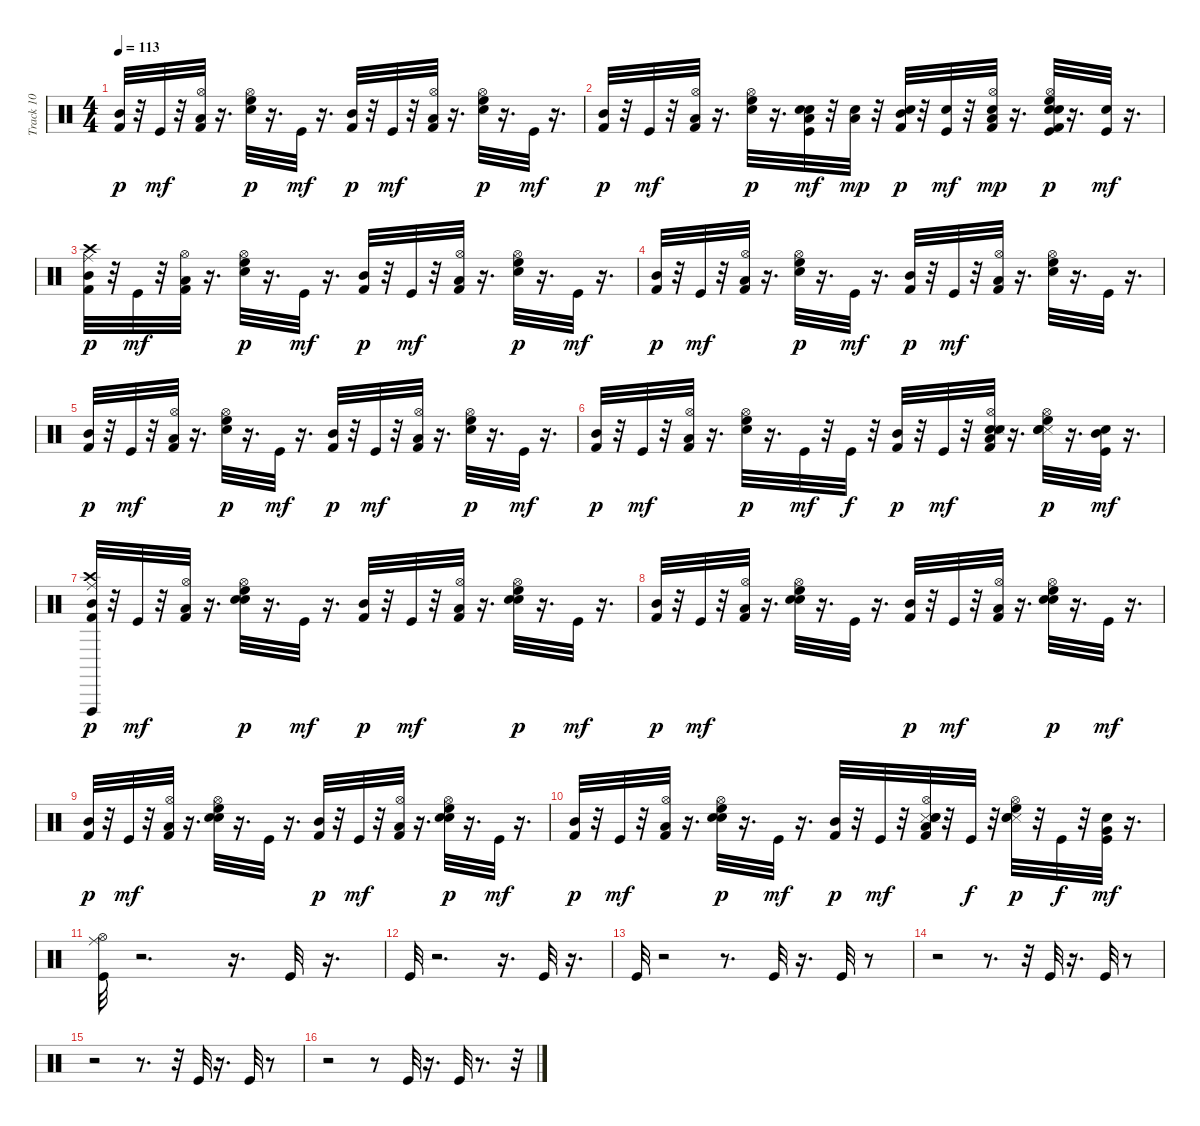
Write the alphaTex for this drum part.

\track ("Track 10" "Track 10") {instrument percussion}
\staff {score}
\articulation defaults
\ts (4 4)
\tempo 113
\clef neutral
\ks c
("Mid Tom (hit)" "Kick (hit) 2").32{dy p} r.32 "Kick (hit)".32{dy mf} r.32 ("Hi-Hat (open)" "Low Tom (hit)" "Kick (hit) 2").32 r.16{d} ("Hi-Hat (open)" "High Floor Tom (hit)" "Snare (hit) 2").32{dy p} r.16{d} "Kick (hit)".32{dy mf} r.16{d} ("Mid Tom (hit)" "Kick (hit) 2").32{dy p} r.32 "Kick (hit)".32{dy mf} r.32 ("Hi-Hat (open)" "Low Tom (hit)" "Kick (hit) 2").32 r.16{d} ("Hi-Hat (open)" "High Floor Tom (hit)" "Snare (hit) 2").32{dy p} r.16{d} "Kick (hit)".32{dy mf} r.16{d} |
("Mid Tom (hit)" "Kick (hit) 2").32{dy p} r.32 "Kick (hit)".32{dy mf} r.32 ("Hi-Hat (open)" "Low Tom (hit)" "Kick (hit) 2").32 r.16{d} ("Hi-Hat (open)" "High Floor Tom (hit)" "Snare (hit) 2").32{dy p} r.16{d} ("Electric Snare (hit)" "Low Tom (hit)" "Snare (hit) 2" "Kick (hit)").32{dy mf} r.32 ("Low Tom (hit)" "Snare (hit) 2").32{dy mp} r.32 ("Snare (hit) 2" "Mid Tom (hit)" "Kick (hit) 2").32{dy p} r.32 ("Snare (hit) 2" "Kick (hit)").32{dy mf} r.32 ("Hi-Hat (open)" "Low Tom (hit)" "Kick (hit) 2" "Snare (hit) 2").32{dy mp} r.16{d} ("Hi-Hat (open)" "Electric Snare (hit)" "Kick (hit)" "Kick (hit) 2" "High Floor Tom (hit)" "Snare (hit) 2").32{dy p} r.16{d} ("Snare (hit) 2" "Kick (hit)").32{dy mf} r.16{d} |
("Crash high (hit)" "Mid Tom (hit)" "Kick (hit) 2" "Ride (middle)").32{dy p} r.32 "Kick (hit)".32{dy mf} r.32 ("Hi-Hat (open)" "Low Tom (hit)" "Kick (hit) 2").32 r.16{d} ("Hi-Hat (open)" "High Floor Tom (hit)" "Snare (hit) 2").32{dy p} r.16{d} "Kick (hit)".32{dy mf} r.16{d} ("Mid Tom (hit)" "Kick (hit) 2").32{dy p} r.32 "Kick (hit)".32{dy mf} r.32 ("Hi-Hat (open)" "Low Tom (hit)" "Kick (hit) 2").32 r.16{d} ("Hi-Hat (open)" "High Floor Tom (hit)" "Snare (hit) 2").32{dy p} r.16{d} "Kick (hit)".32{dy mf} r.16{d} |
("Mid Tom (hit)" "Kick (hit) 2").32{dy p} r.32 "Kick (hit)".32{dy mf} r.32 ("Hi-Hat (open)" "Low Tom (hit)" "Kick (hit) 2").32 r.16{d} ("Hi-Hat (open)" "High Floor Tom (hit)" "Snare (hit) 2").32{dy p} r.16{d} "Kick (hit)".32{dy mf} r.16{d} ("Mid Tom (hit)" "Kick (hit) 2").32{dy p} r.32 "Kick (hit)".32{dy mf} r.32 ("Hi-Hat (open)" "Low Tom (hit)" "Kick (hit) 2").32 r.16{d} ("High Floor Tom (hit)" "Snare (hit) 2" "Hi-Hat (open)").32 r.16{d} "Kick (hit)".32 r.16{d} |
("Mid Tom (hit)" "Kick (hit) 2").32{dy p} r.32 "Kick (hit)".32{dy mf} r.32 ("Hi-Hat (open)" "Low Tom (hit)" "Kick (hit) 2").32 r.16{d} ("Hi-Hat (open)" "High Floor Tom (hit)" "Snare (hit) 2").32{dy p} r.16{d} "Kick (hit)".32{dy mf} r.16{d} ("Mid Tom (hit)" "Kick (hit) 2").32{dy p} r.32 "Kick (hit)".32{dy mf} r.32 ("Hi-Hat (open)" "Low Tom (hit)" "Kick (hit) 2").32 r.16{d} ("Hi-Hat (open)" "High Floor Tom (hit)" "Snare (hit) 2").32{dy p} r.16{d} "Kick (hit)".32{dy mf} r.16{d} |
("Mid Tom (hit)" "Kick (hit) 2").32{dy p} r.32 "Kick (hit)".32{dy mf} r.32 ("Hi-Hat (open)" "Low Tom (hit)" "Kick (hit) 2").32 r.16{d} ("Hi-Hat (open)" "High Floor Tom (hit)" "Snare (hit) 2").32{dy p} r.16{d} "Kick (hit)".32{dy mf} r.32 "Kick (hit)".32{dy f} r.32 ("Mid Tom (hit)" "Kick (hit) 2").32{dy p} r.32 "Kick (hit)".32{dy mf} r.32 ("Hi-Hat (open)" "Snare (hit) 2" "Snare (side stick) 3" "Hand Clap (hit)" "Low Tom (hit)" "Kick (hit) 2").32 r.16{d} ("Hi-Hat (open)" "Snare (side stick) 3" "Hand Clap (hit)" "High Floor Tom (hit)" "Snare (hit) 2").32{dy p} r.16{d} ("Mid Tom (hit)" "Snare (hit) 2" "Kick (hit)").32{dy mf} r.16{d} |
("Vibraslap (hit)" "Crash high (hit)" "Ride (middle)" "Mid Tom (hit)" "Kick (hit) 2").32{dy p} r.32 "Kick (hit)".32{dy mf} r.32 ("Low Tom (hit)" "Kick (hit) 2" "Hi-Hat (open)").32 r.16{d} ("Hi-Hat (open)" "Hand Clap (hit)" "High Floor Tom (hit)" "Snare (hit) 2").32{dy p} r.16{d} "Kick (hit)".32{dy mf} r.16{d} ("Mid Tom (hit)" "Kick (hit) 2").32{dy p} r.32 "Kick (hit)".32{dy mf} r.32 ("Hi-Hat (open)" "Low Tom (hit)" "Kick (hit) 2").32 r.16{d} ("Hi-Hat (open)" "Hand Clap (hit)" "High Floor Tom (hit)" "Snare (hit) 2").32{dy p} r.16{d} "Kick (hit)".32{dy mf} r.16{d} |
("Mid Tom (hit)" "Kick (hit) 2").32{dy p} r.32 "Kick (hit)".32{dy mf} r.32 ("Hi-Hat (open)" "Low Tom (hit)" "Kick (hit) 2").32 r.16{d} ("Hand Clap (hit)" "High Floor Tom (hit)" "Snare (hit) 2" "Hi-Hat (open)").32 r.16{d} "Kick (hit)".32 r.16{d} ("Mid Tom (hit)" "Kick (hit) 2").32{dy p} r.32 "Kick (hit)".32{dy mf} r.32 ("Hi-Hat (open)" "Low Tom (hit)" "Kick (hit) 2").32 r.16{d} ("Hi-Hat (open)" "Hand Clap (hit)" "High Floor Tom (hit)" "Snare (hit) 2").32{dy p} r.16{d} "Kick (hit)".32{dy mf} r.16{d} |
("Mid Tom (hit)" "Kick (hit) 2").32{dy p} r.32 "Kick (hit)".32{dy mf} r.32 ("Hi-Hat (open)" "Low Tom (hit)" "Kick (hit) 2").32 r.16{d} ("Hand Clap (hit)" "High Floor Tom (hit)" "Snare (hit) 2" "Hi-Hat (open)").32 r.16{d} "Kick (hit)".32 r.16{d} ("Mid Tom (hit)" "Kick (hit) 2").32{dy p} r.32 "Kick (hit)".32{dy mf} r.32 ("Hi-Hat (open)" "Low Tom (hit)" "Kick (hit) 2").32 r.16{d} ("Hi-Hat (open)" "Hand Clap (hit)" "High Floor Tom (hit)" "Snare (hit) 2").32{dy p} r.16{d} "Kick (hit)".32{dy mf} r.16{d} |
("Mid Tom (hit)" "Kick (hit) 2").32{dy p} r.32 "Kick (hit)".32{dy mf} r.32 ("Hi-Hat (open)" "Low Tom (hit)" "Kick (hit) 2").32 r.16{d} ("Hi-Hat (open)" "Hand Clap (hit)" "High Floor Tom (hit)" "Snare (hit) 2").32{dy p} r.16{d} "Kick (hit)".32{dy mf} r.16{d} ("Mid Tom (hit)" "Kick (hit) 2").32{dy p} r.32 "Kick (hit)".32{dy mf} r.32 ("Hi-Hat (open)" "Snare (side stick) 3" "Hand Clap (hit)" "Low Tom (hit)" "Kick (hit) 2" "Snare (hit) 2").32 r.32 "Kick (hit)".32{dy f} r.32 ("Hi-Hat (open)" "Snare (side stick) 3" "Hand Clap (hit)" "High Floor Tom (hit)" "Snare (hit) 2").32{dy p} r.32 "Kick (hit)".32{dy f} r.32 ("Very Low Tom (hit)" "Snare (hit) 2" "Kick (hit)").32{dy mf} r.16{d} |
("Ride (middle)" "Hi-Hat (open)" "Kick (hit)").32 r.2{d} r.16{d} "Kick (hit)".32 r.16{d} |
"Kick (hit)".32 r.2{d} r.16{d} "Kick (hit)".32 r.16{d} |
"Kick (hit)".32 r.2 r.8{d} "Kick (hit)".32 r.16{d} "Kick (hit)".32 r.8 |
r.2 r.8{d} r.32 "Kick (hit)".32 r.16{d} "Kick (hit)".32 r.8 |
r.2 r.8{d} r.32 "Kick (hit)".32 r.16{d} "Kick (hit)".32 r.8 |
r.2 r.8 "Kick (hit)".32 r.16{d} "Kick (hit)".32 r.8{d} r.32
